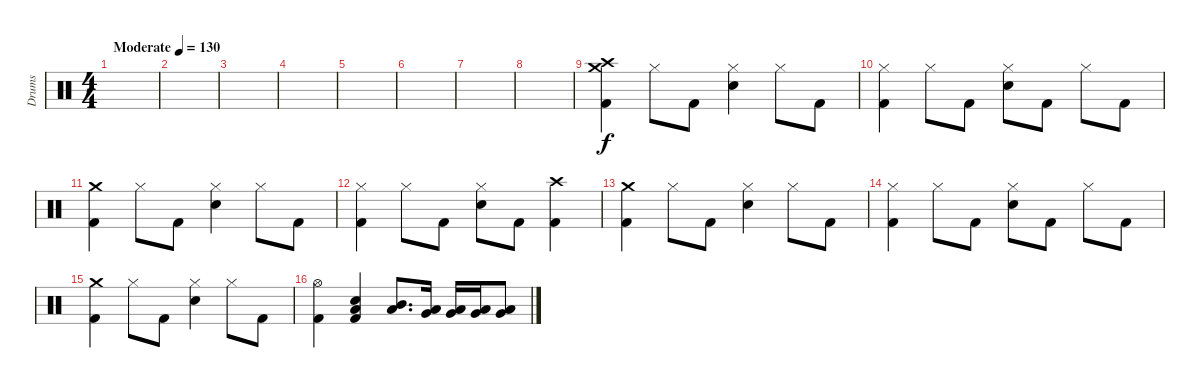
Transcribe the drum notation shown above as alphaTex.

\track ("Drums" "Drums") {instrument percussion}
\staff {score}
\articulation defaults
\ts (4 4)
\tempo (130 "Moderate")
\clef neutral
\ks c
|
|
|
|
|
|
|
|
("Crash medium (hit)" "Crash high (hit)" "Kick (hit) 2").4 "Hi-Hat (closed)".8 "Kick (hit) 2".8 ("Hi-Hat (closed)" "Electric Snare (hit)").4 "Hi-Hat (closed)".8 "Kick (hit) 2".8 |
("Hi-Hat (closed)" "Kick (hit) 2").4 "Hi-Hat (closed)".8 "Kick (hit) 2".8 ("Hi-Hat (closed)" "Electric Snare (hit)").8 "Kick (hit) 2".8 "Hi-Hat (closed)".8 "Kick (hit) 2".8 |
("Crash medium (hit)" "Kick (hit) 2").4 "Hi-Hat (closed)".8 "Kick (hit) 2".8 ("Hi-Hat (closed)" "Electric Snare (hit)").4 "Hi-Hat (closed)".8 "Kick (hit) 2".8 |
("Hi-Hat (closed)" "Kick (hit) 2").4 "Hi-Hat (closed)".8 "Kick (hit) 2".8 ("Hi-Hat (closed)" "Electric Snare (hit)").8 "Kick (hit) 2".8 ("Crash high (hit)" "Kick (hit) 2").4 |
("Crash medium (hit)" "Kick (hit) 2").4 "Hi-Hat (closed)".8 "Kick (hit) 2".8 ("Hi-Hat (closed)" "Electric Snare (hit)").4 "Hi-Hat (closed)".8 "Kick (hit) 2".8 |
("Hi-Hat (closed)" "Kick (hit) 2").4 "Hi-Hat (closed)".8 "Kick (hit) 2".8 ("Hi-Hat (closed)" "Electric Snare (hit)").8 "Kick (hit) 2".8 "Hi-Hat (closed)".8 "Kick (hit) 2".8 |
("Crash medium (hit)" "Kick (hit) 2").4 "Hi-Hat (closed)".8 "Kick (hit) 2".8 ("Hi-Hat (closed)" "Electric Snare (hit)").4 "Hi-Hat (closed)".8 "Kick (hit) 2".8 |
("Hi-Hat (open)" "Kick (hit) 2").4 ("Low Floor Tom (hit)" "Electric Snare (hit)" "Kick (hit) 2").4 ("Low Tom (hit)" "Mid Tom (hit)").8{d} ("Very Low Tom (hit)" "Low Tom (hit)").16 ("Very Low Tom (hit)" "Low Tom (hit)").16 ("Very Low Tom (hit)" "Low Tom (hit)").16 ("Low Floor Tom (hit)" "Very Low Tom (hit)").8
